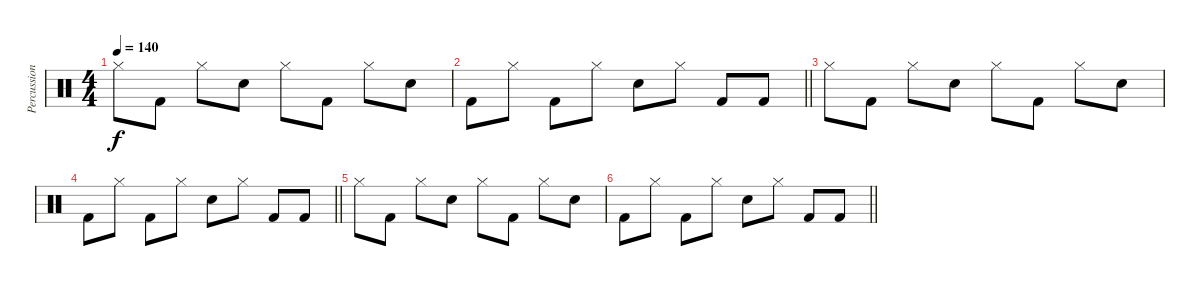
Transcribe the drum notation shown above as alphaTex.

\track ("Percussion" "Percussion") {instrument percussion}
\staff {score}
\articulation defaults
\ts (4 4)
\tempo 140
\clef neutral
\ks c "Hi-Hat (closed)".8{dy f} "Kick (hit) 2".8 "Hi-Hat (closed)".8 "Electric Snare (hit)".8 "Hi-Hat (closed)".8 "Kick (hit) 2".8 "Hi-Hat (closed)".8 "Electric Snare (hit)".8
|
\barLineRight lightlight "Kick (hit) 2".8 "Hi-Hat (closed)".8 "Kick (hit) 2".8 "Hi-Hat (closed)".8 "Electric Snare (hit)".8 "Hi-Hat (closed)".8 "Kick (hit) 2".8 "Kick (hit) 2".8
|
"Hi-Hat (closed)".8 "Kick (hit) 2".8 "Hi-Hat (closed)".8 "Electric Snare (hit)".8 "Hi-Hat (closed)".8 "Kick (hit) 2".8 "Hi-Hat (closed)".8 "Electric Snare (hit)".8 |
\barLineRight lightlight "Kick (hit) 2".8 "Hi-Hat (closed)".8 "Kick (hit) 2".8 "Hi-Hat (closed)".8 "Electric Snare (hit)".8 "Hi-Hat (closed)".8 "Kick (hit) 2".8 "Kick (hit) 2".8
|
"Hi-Hat (closed)".8 "Kick (hit) 2".8 "Hi-Hat (closed)".8 "Electric Snare (hit)".8 "Hi-Hat (closed)".8 "Kick (hit) 2".8 "Hi-Hat (closed)".8 "Electric Snare (hit)".8 |
\barLineRight lightlight "Kick (hit) 2".8 "Hi-Hat (closed)".8 "Kick (hit) 2".8 "Hi-Hat (closed)".8 "Electric Snare (hit)".8 "Hi-Hat (closed)".8 "Kick (hit) 2".8 "Kick (hit) 2".8
